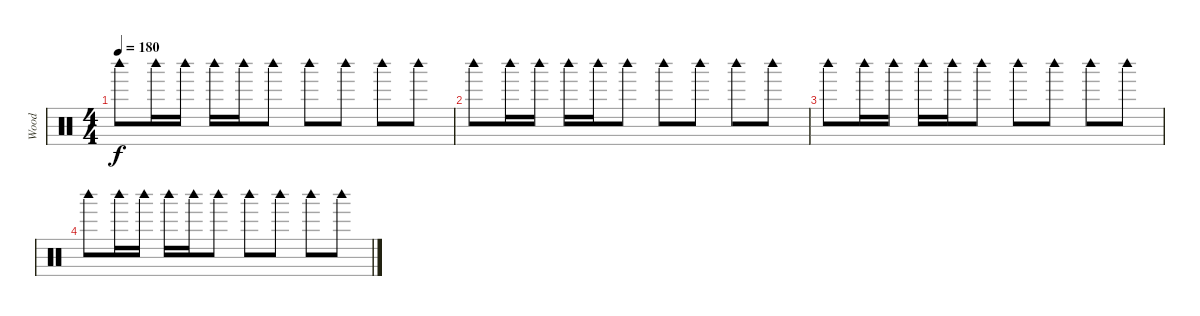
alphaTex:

\track ("Wood" "Wood") {instrument percussion}
\staff {score}
\articulation defaults
\ts (4 4)
\tempo 180
\clef neutral
\ks c "Woodblock high (hit)".8{dy f} "Woodblock high (hit)".16 "Woodblock high (hit)".16 "Woodblock high (hit)".16 "Woodblock high (hit)".16 "Woodblock high (hit)".8 "Woodblock high (hit)".8 "Woodblock high (hit)".8 "Woodblock high (hit)".8 "Woodblock high (hit)".8
|
"Woodblock high (hit)".8 "Woodblock high (hit)".16 "Woodblock high (hit)".16 "Woodblock high (hit)".16 "Woodblock high (hit)".16 "Woodblock high (hit)".8 "Woodblock high (hit)".8 "Woodblock high (hit)".8 "Woodblock high (hit)".8 "Woodblock high (hit)".8 |
"Woodblock high (hit)".8 "Woodblock high (hit)".16 "Woodblock high (hit)".16 "Woodblock high (hit)".16 "Woodblock high (hit)".16 "Woodblock high (hit)".8 "Woodblock high (hit)".8 "Woodblock high (hit)".8 "Woodblock high (hit)".8 "Woodblock high (hit)".8 |
"Woodblock high (hit)".8 "Woodblock high (hit)".16 "Woodblock high (hit)".16 "Woodblock high (hit)".16 "Woodblock high (hit)".16 "Woodblock high (hit)".8 "Woodblock high (hit)".8 "Woodblock high (hit)".8 "Woodblock high (hit)".8 "Woodblock high (hit)".8
